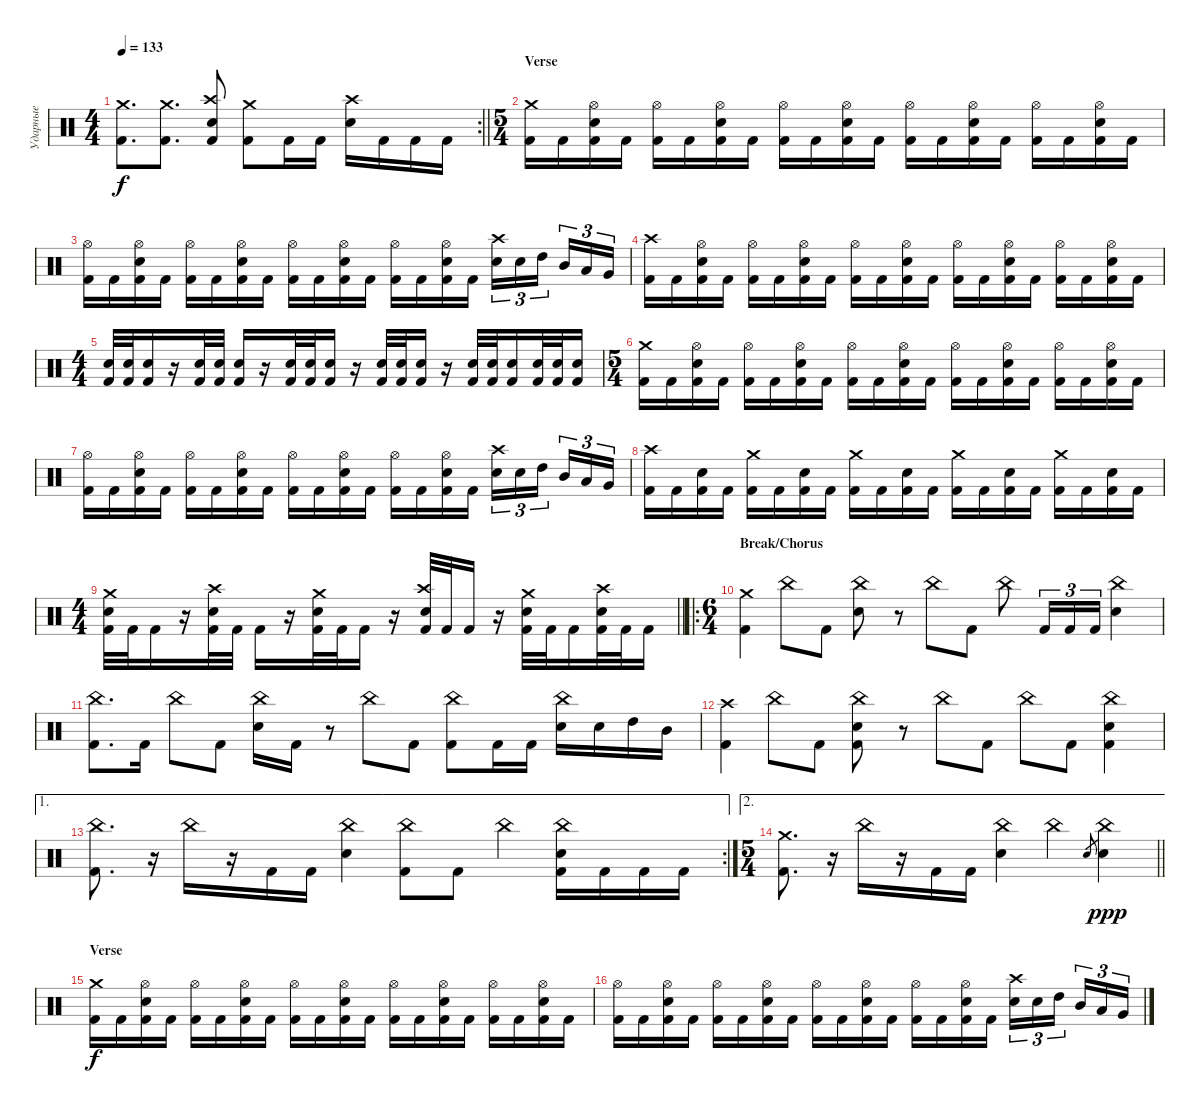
\track ("Ударные" "Ударные") {instrument percussion}
\staff {score}
\articulation defaults
\rc 2
\ts (4 4)
\tempo 133
\clef neutral
\barLineRight lightlight
\ks c
("Crash medium (hit)" "Kick (hit) 2").8{d dy f} ("Crash medium (hit)" "Kick (hit) 2").8{d} ("Crash high (hit)" "Snare (hit) 2" "Kick (hit) 2").8 ("Crash medium (hit)" "Kick (hit) 2").8 "Kick (hit) 2".16 "Kick (hit) 2".16 ("Crash high (hit)" "Snare (hit) 2").16 "Kick (hit) 2".16 "Kick (hit) 2".16 "Kick (hit) 2".16 |
\ts (5 4)
\section ("" "Verse")
("Crash medium (hit)" "Kick (hit) 2").16 "Kick (hit) 2".16 ("Hi-Hat (open)" "Snare (hit) 2" "Kick (hit) 2").16 "Kick (hit) 2".16 ("Hi-Hat (open)" "Kick (hit) 2").16 "Kick (hit) 2".16 ("Hi-Hat (open)" "Snare (hit) 2" "Kick (hit) 2").16 "Kick (hit) 2".16 ("Hi-Hat (open)" "Kick (hit) 2").16 "Kick (hit) 2".16 ("Hi-Hat (open)" "Snare (hit) 2" "Kick (hit) 2").16 "Kick (hit) 2".16 ("Hi-Hat (open)" "Kick (hit) 2").16 "Kick (hit) 2".16 ("Hi-Hat (open)" "Snare (hit) 2" "Kick (hit) 2").16 "Kick (hit) 2".16 ("Hi-Hat (open)" "Kick (hit) 2").16 "Kick (hit) 2".16 ("Hi-Hat (open)" "Snare (hit) 2" "Kick (hit) 2").16 "Kick (hit) 2".16 |
("Hi-Hat (open)" "Kick (hit) 2").16 "Kick (hit) 2".16 ("Hi-Hat (open)" "Snare (hit) 2" "Kick (hit) 2").16 "Kick (hit) 2".16 ("Hi-Hat (open)" "Kick (hit) 2").16 "Kick (hit) 2".16 ("Hi-Hat (open)" "Snare (hit) 2" "Kick (hit) 2").16 "Kick (hit) 2".16 ("Hi-Hat (open)" "Kick (hit) 2").16 "Kick (hit) 2".16 ("Hi-Hat (open)" "Snare (hit) 2" "Kick (hit) 2").16 "Kick (hit) 2".16 ("Hi-Hat (open)" "Kick (hit) 2").16 "Kick (hit) 2".16 ("Hi-Hat (open)" "Snare (hit) 2" "Kick (hit) 2").16 "Kick (hit) 2".16 ("Crash high (hit)" "Snare (hit) 2").16{tu (3 2)} "Snare (hit) 2".16{tu (3 2)} "High Tom (hit)".16{tu (3 2) beam splitsecondary} "Mid Tom (hit)".16{tu (3 2)} "Low Tom (hit)".16{tu (3 2)} "Very Low Tom (hit)".16{tu (3 2)} |
("Crash high (hit)" "Kick (hit) 2").16 "Kick (hit) 2".16 ("Hi-Hat (open)" "Snare (hit) 2" "Kick (hit) 2").16 "Kick (hit) 2".16 ("Hi-Hat (open)" "Kick (hit) 2").16 "Kick (hit) 2".16 ("Hi-Hat (open)" "Snare (hit) 2" "Kick (hit) 2").16 "Kick (hit) 2".16 ("Hi-Hat (open)" "Kick (hit) 2").16 "Kick (hit) 2".16 ("Hi-Hat (open)" "Snare (hit) 2" "Kick (hit) 2").16 "Kick (hit) 2".16 ("Hi-Hat (open)" "Kick (hit) 2").16 "Kick (hit) 2".16 ("Hi-Hat (open)" "Snare (hit) 2" "Kick (hit) 2").16 "Kick (hit) 2".16 ("Hi-Hat (open)" "Kick (hit) 2").16 "Kick (hit) 2".16 ("Hi-Hat (open)" "Snare (hit) 2" "Kick (hit) 2").16 "Kick (hit) 2".16 |
\ts (4 4)
("Snare (hit) 2" "Kick (hit) 2").32 ("Snare (hit) 2" "Kick (hit) 2").32 ("Snare (hit) 2" "Kick (hit) 2").16 r.16 ("Snare (hit) 2" "Kick (hit) 2").32 ("Snare (hit) 2" "Kick (hit) 2").32 ("Snare (hit) 2" "Kick (hit) 2").16 r.16 ("Snare (hit) 2" "Kick (hit) 2").32 ("Snare (hit) 2" "Kick (hit) 2").32 ("Snare (hit) 2" "Kick (hit) 2").16 r.16 ("Snare (hit) 2" "Kick (hit) 2").32 ("Snare (hit) 2" "Kick (hit) 2").32 ("Snare (hit) 2" "Kick (hit) 2").16 r.16 ("Snare (hit) 2" "Kick (hit) 2").32 ("Snare (hit) 2" "Kick (hit) 2").32 ("Snare (hit) 2" "Kick (hit) 2").16 ("Snare (hit) 2" "Kick (hit) 2").32 ("Snare (hit) 2" "Kick (hit) 2").32 ("Snare (hit) 2" "Kick (hit) 2").16 |
\ts (5 4)
("Crash medium (hit)" "Kick (hit) 2").16 "Kick (hit) 2".16 ("Hi-Hat (open)" "Snare (hit) 2" "Kick (hit) 2").16 "Kick (hit) 2".16 ("Hi-Hat (open)" "Kick (hit) 2").16 "Kick (hit) 2".16 ("Hi-Hat (open)" "Snare (hit) 2" "Kick (hit) 2").16 "Kick (hit) 2".16 ("Hi-Hat (open)" "Kick (hit) 2").16 "Kick (hit) 2".16 ("Hi-Hat (open)" "Snare (hit) 2" "Kick (hit) 2").16 "Kick (hit) 2".16 ("Hi-Hat (open)" "Kick (hit) 2").16 "Kick (hit) 2".16 ("Hi-Hat (open)" "Snare (hit) 2" "Kick (hit) 2").16 "Kick (hit) 2".16 ("Hi-Hat (open)" "Kick (hit) 2").16 "Kick (hit) 2".16 ("Hi-Hat (open)" "Snare (hit) 2" "Kick (hit) 2").16 "Kick (hit) 2".16 |
("Hi-Hat (open)" "Kick (hit) 2").16 "Kick (hit) 2".16 ("Hi-Hat (open)" "Snare (hit) 2" "Kick (hit) 2").16 "Kick (hit) 2".16 ("Hi-Hat (open)" "Kick (hit) 2").16 "Kick (hit) 2".16 ("Hi-Hat (open)" "Snare (hit) 2" "Kick (hit) 2").16 "Kick (hit) 2".16 ("Hi-Hat (open)" "Kick (hit) 2").16 "Kick (hit) 2".16 ("Hi-Hat (open)" "Snare (hit) 2" "Kick (hit) 2").16 "Kick (hit) 2".16 ("Hi-Hat (open)" "Kick (hit) 2").16 "Kick (hit) 2".16 ("Hi-Hat (open)" "Snare (hit) 2" "Kick (hit) 2").16 "Kick (hit) 2".16 ("Crash high (hit)" "Snare (hit) 2").16{tu (3 2)} "Snare (hit) 2".16{tu (3 2)} "High Tom (hit)".16{tu (3 2) beam splitsecondary} "Mid Tom (hit)".16{tu (3 2)} "Low Tom (hit)".16{tu (3 2)} "Very Low Tom (hit)".16{tu (3 2)} |
("Crash high (hit)" "Kick (hit) 2").16 "Kick (hit) 2".16 ("Snare (hit) 2" "Kick (hit) 2").16 "Kick (hit) 2".16 ("Crash medium (hit)" "Kick (hit) 2").16 "Kick (hit) 2".16 ("Snare (hit) 2" "Kick (hit) 2").16 "Kick (hit) 2".16 ("Crash medium (hit)" "Kick (hit) 2").16 "Kick (hit) 2".16 ("Snare (hit) 2" "Kick (hit) 2").16 "Kick (hit) 2".16 ("Crash medium (hit)" "Kick (hit) 2").16 "Kick (hit) 2".16 ("Snare (hit) 2" "Kick (hit) 2").16 "Kick (hit) 2".16 ("Crash medium (hit)" "Kick (hit) 2").16 "Kick (hit) 2".16 ("Snare (hit) 2" "Kick (hit) 2").16 "Kick (hit) 2".16 |
\ts (4 4)
\barLineRight lightlight
("Crash medium (hit)" "Snare (hit) 2" "Kick (hit) 2").32 "Kick (hit) 2".32 "Kick (hit) 2".16 r.16 ("Crash high (hit)" "Snare (hit) 2" "Kick (hit) 2").32 "Kick (hit) 2".32 "Kick (hit) 2".16 r.16 ("Crash medium (hit)" "Snare (hit) 2" "Kick (hit) 2").32 "Kick (hit) 2".32 "Kick (hit) 2".16 r.16 ("Crash high (hit)" "Snare (hit) 2" "Kick (hit) 2").32 "Kick (hit) 2".32 "Kick (hit) 2".16 r.16 ("Crash medium (hit)" "Snare (hit) 2" "Kick (hit) 2").32 "Kick (hit) 2".32 "Kick (hit) 2".16 ("Crash high (hit)" "Snare (hit) 2" "Kick (hit) 2").32 "Kick (hit) 2".32 "Kick (hit) 2".16 |
\ro
\ts (6 4)
\section ("" "Break/Chorus")
("Crash medium (hit)" "Kick (hit) 2").4 "China (hit)".8 "Kick (hit) 2".8 ("China (hit)" "Electric Snare (hit)").8 r.8 "China (hit)".8 "Kick (hit) 2".8 "China (hit)".8 "Kick (hit) 2".16{tu (3 2)} "Kick (hit) 2".16{tu (3 2)} "Kick (hit) 2".16{tu (3 2)} ("China (hit)" "Snare (hit) 2").4 |
("China (hit)" "Kick (hit) 2").8{d} "Kick (hit) 2".16 "China (hit)".8 "Kick (hit) 2".8 ("China (hit)" "Snare (hit) 2").16 "Kick (hit) 2".16 r.8 "China (hit)".8 "Kick (hit) 2".8 ("China (hit)" "Kick (hit) 2").8 "Kick (hit) 2".16 "Kick (hit) 2".16 ("China (hit)" "Snare (hit) 2").16 "Snare (hit) 2".16 "High Tom (hit)".16 "Mid Tom (hit)".16 |
("Crash high (hit)" "Kick (hit) 2").4 "China (hit)".8 "Kick (hit) 2".8 ("China (hit)" "Snare (hit) 2" "Kick (hit) 2").8 r.8 "China (hit)".8 "Kick (hit) 2".8 "China (hit)".8 "Kick (hit) 2".8 ("China (hit)" "Snare (hit) 2" "Kick (hit) 2").4 |
\ae 1
\rc 2
("China (hit)" "Kick (hit) 2").8{d} r.16 "China (hit)".16 r.16 "Kick (hit) 2".16 "Kick (hit) 2".16 ("China (hit)" "Snare (hit) 2").4 ("China (hit)" "Kick (hit) 2").8 "Kick (hit) 2".8 "China (hit)".4 ("China (hit)" "Snare (hit) 2" "Kick (hit) 2").16 "Kick (hit) 2".16 "Kick (hit) 2".16 "Kick (hit) 2".16 |
\ae 2
\ts (5 4)
\barLineRight lightlight
("Crash medium (hit)" "Kick (hit) 2").8{d} r.16 "China (hit)".16 r.16 "Kick (hit) 2".16 "Kick (hit) 2".16 ("China (hit)" "Snare (hit) 2").4 "China (hit)".4 "Electric Snare (hit)".8{gr} ("China (hit)" "Snare (hit) 2").4{dy ppp} |
\section ("" "Verse")
("Crash medium (hit)" "Kick (hit) 2").16{dy f} "Kick (hit) 2".16 ("Hi-Hat (open)" "Snare (hit) 2" "Kick (hit) 2").16 "Kick (hit) 2".16 ("Hi-Hat (open)" "Kick (hit) 2").16 "Kick (hit) 2".16 ("Hi-Hat (open)" "Snare (hit) 2" "Kick (hit) 2").16 "Kick (hit) 2".16 ("Hi-Hat (open)" "Kick (hit) 2").16 "Kick (hit) 2".16 ("Hi-Hat (open)" "Snare (hit) 2" "Kick (hit) 2").16 "Kick (hit) 2".16 ("Hi-Hat (open)" "Kick (hit) 2").16 "Kick (hit) 2".16 ("Hi-Hat (open)" "Snare (hit) 2" "Kick (hit) 2").16 "Kick (hit) 2".16 ("Hi-Hat (open)" "Kick (hit) 2").16 "Kick (hit) 2".16 ("Hi-Hat (open)" "Snare (hit) 2" "Kick (hit) 2").16 "Kick (hit) 2".16 |
("Hi-Hat (open)" "Kick (hit) 2").16 "Kick (hit) 2".16 ("Hi-Hat (open)" "Snare (hit) 2" "Kick (hit) 2").16 "Kick (hit) 2".16 ("Hi-Hat (open)" "Kick (hit) 2").16 "Kick (hit) 2".16 ("Hi-Hat (open)" "Snare (hit) 2" "Kick (hit) 2").16 "Kick (hit) 2".16 ("Hi-Hat (open)" "Kick (hit) 2").16 "Kick (hit) 2".16 ("Hi-Hat (open)" "Snare (hit) 2" "Kick (hit) 2").16 "Kick (hit) 2".16 ("Hi-Hat (open)" "Kick (hit) 2").16 "Kick (hit) 2".16 ("Hi-Hat (open)" "Snare (hit) 2" "Kick (hit) 2").16 "Kick (hit) 2".16 ("Crash high (hit)" "Snare (hit) 2").16{tu (3 2)} "Snare (hit) 2".16{tu (3 2)} "High Tom (hit)".16{tu (3 2) beam splitsecondary} "Mid Tom (hit)".16{tu (3 2)} "Low Tom (hit)".16{tu (3 2)} "Very Low Tom (hit)".16{tu (3 2)}
